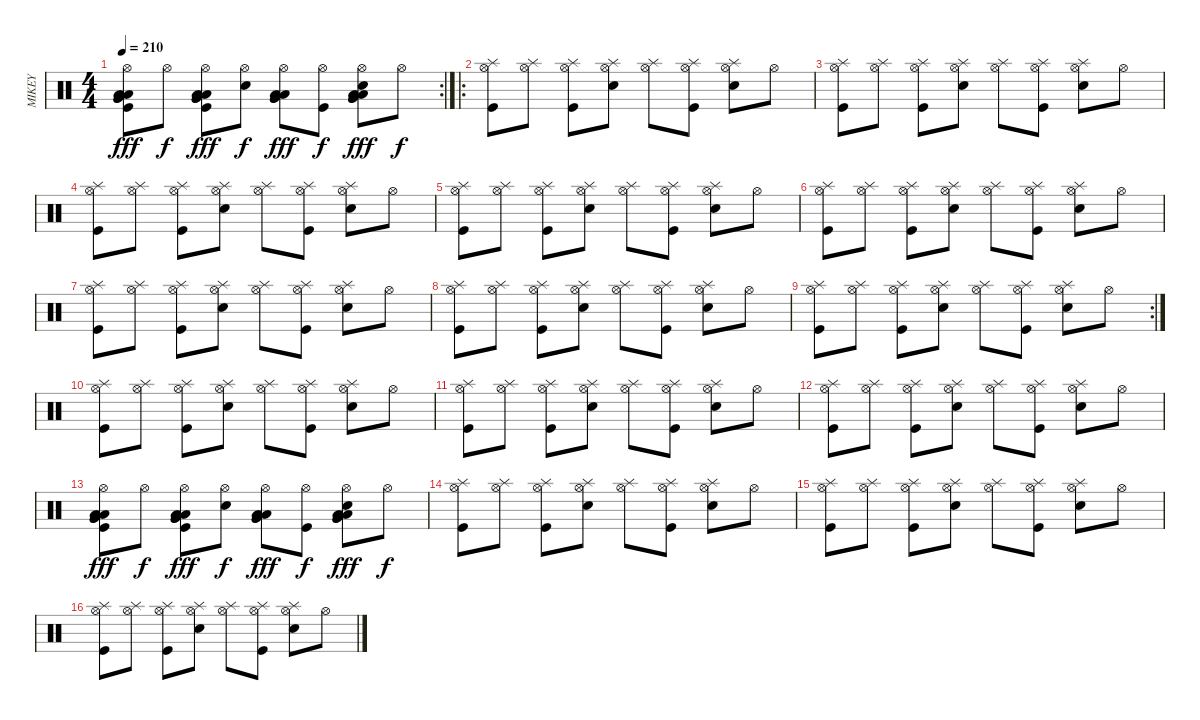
\track ("MIKEY" "MIKEY") {instrument percussion}
\staff {score}
\articulation defaults
\rc 2
\ts (4 4)
\tempo 210
\clef neutral
\ks c
("Low Tom (hit)" "Very Low Tom (hit)" "Low Tom (hit)" "Very Low Tom (hit)" "Hi-Hat (open)" "Kick (hit)").8{dy fff} "Hi-Hat (open)".8{dy f} ("Low Tom (hit)" "Very Low Tom (hit)" "Low Tom (hit)" "Very Low Tom (hit)" "Hi-Hat (open)" "Kick (hit)").8{dy fff} ("Hi-Hat (open)" "Snare (hit) 2").8{dy f} ("Low Tom (hit)" "Very Low Tom (hit)" "Low Tom (hit)" "Very Low Tom (hit)" "Hi-Hat (open)").8{dy fff} ("Hi-Hat (open)" "Kick (hit)").8{dy f} ("Low Tom (hit)" "Very Low Tom (hit)" "Low Tom (hit)" "Very Low Tom (hit)" "Hi-Hat (open)" "Snare (hit) 2").8{dy fff} "Hi-Hat (open)".8{dy f} |
\ro
("Splash (hit)" "Hi-Hat (open)" "Kick (hit)").8 ("Splash (hit)" "Hi-Hat (open)").8 ("Splash (hit)" "Hi-Hat (open)" "Kick (hit)").8 ("Splash (hit)" "Hi-Hat (open)" "Snare (hit) 2").8 ("Splash (hit)" "Hi-Hat (open)").8 ("Splash (hit)" "Hi-Hat (open)" "Kick (hit)").8 ("Splash (hit)" "Hi-Hat (open)" "Snare (hit) 2").8 "Hi-Hat (open)".8 |
("Splash (hit)" "Hi-Hat (open)" "Kick (hit)").8 ("Splash (hit)" "Hi-Hat (open)").8 ("Splash (hit)" "Hi-Hat (open)" "Kick (hit)").8 ("Splash (hit)" "Hi-Hat (open)" "Snare (hit) 2").8 ("Splash (hit)" "Hi-Hat (open)").8 ("Splash (hit)" "Hi-Hat (open)" "Kick (hit)").8 ("Splash (hit)" "Hi-Hat (open)" "Snare (hit) 2").8 "Hi-Hat (open)".8 |
("Splash (hit)" "Hi-Hat (open)" "Kick (hit)").8 ("Splash (hit)" "Hi-Hat (open)").8 ("Splash (hit)" "Hi-Hat (open)" "Kick (hit)").8 ("Splash (hit)" "Hi-Hat (open)" "Snare (hit) 2").8 ("Splash (hit)" "Hi-Hat (open)").8 ("Splash (hit)" "Hi-Hat (open)" "Kick (hit)").8 ("Splash (hit)" "Hi-Hat (open)" "Snare (hit) 2").8 "Hi-Hat (open)".8 |
("Splash (hit)" "Hi-Hat (open)" "Kick (hit)").8 ("Splash (hit)" "Hi-Hat (open)").8 ("Splash (hit)" "Hi-Hat (open)" "Kick (hit)").8 ("Splash (hit)" "Hi-Hat (open)" "Snare (hit) 2").8 ("Splash (hit)" "Hi-Hat (open)").8 ("Splash (hit)" "Hi-Hat (open)" "Kick (hit)").8 ("Splash (hit)" "Hi-Hat (open)" "Snare (hit) 2").8 "Hi-Hat (open)".8 |
("Splash (hit)" "Hi-Hat (open)" "Kick (hit)").8 ("Splash (hit)" "Hi-Hat (open)").8 ("Splash (hit)" "Hi-Hat (open)" "Kick (hit)").8 ("Splash (hit)" "Hi-Hat (open)" "Snare (hit) 2").8 ("Splash (hit)" "Hi-Hat (open)").8 ("Splash (hit)" "Hi-Hat (open)" "Kick (hit)").8 ("Splash (hit)" "Hi-Hat (open)" "Snare (hit) 2").8 "Hi-Hat (open)".8 |
("Splash (hit)" "Hi-Hat (open)" "Kick (hit)").8 ("Splash (hit)" "Hi-Hat (open)").8 ("Splash (hit)" "Hi-Hat (open)" "Kick (hit)").8 ("Splash (hit)" "Hi-Hat (open)" "Snare (hit) 2").8 ("Splash (hit)" "Hi-Hat (open)").8 ("Splash (hit)" "Hi-Hat (open)" "Kick (hit)").8 ("Splash (hit)" "Hi-Hat (open)" "Snare (hit) 2").8 "Hi-Hat (open)".8 |
("Splash (hit)" "Hi-Hat (open)" "Kick (hit)").8 ("Splash (hit)" "Hi-Hat (open)").8 ("Splash (hit)" "Hi-Hat (open)" "Kick (hit)").8 ("Splash (hit)" "Hi-Hat (open)" "Snare (hit) 2").8 ("Splash (hit)" "Hi-Hat (open)").8 ("Splash (hit)" "Hi-Hat (open)" "Kick (hit)").8 ("Splash (hit)" "Hi-Hat (open)" "Snare (hit) 2").8 "Hi-Hat (open)".8 |
\rc 2
("Splash (hit)" "Hi-Hat (open)" "Kick (hit)").8 ("Splash (hit)" "Hi-Hat (open)").8 ("Splash (hit)" "Hi-Hat (open)" "Kick (hit)").8 ("Splash (hit)" "Hi-Hat (open)" "Snare (hit) 2").8 ("Splash (hit)" "Hi-Hat (open)").8 ("Splash (hit)" "Hi-Hat (open)" "Kick (hit)").8 ("Splash (hit)" "Hi-Hat (open)" "Snare (hit) 2").8 "Hi-Hat (open)".8 |
("Splash (hit)" "Hi-Hat (open)" "Kick (hit)").8 ("Splash (hit)" "Hi-Hat (open)").8 ("Splash (hit)" "Hi-Hat (open)" "Kick (hit)").8 ("Splash (hit)" "Hi-Hat (open)" "Snare (hit) 2").8 ("Splash (hit)" "Hi-Hat (open)").8 ("Splash (hit)" "Hi-Hat (open)" "Kick (hit)").8 ("Splash (hit)" "Hi-Hat (open)" "Snare (hit) 2").8 "Hi-Hat (open)".8 |
("Splash (hit)" "Hi-Hat (open)" "Kick (hit)").8 ("Splash (hit)" "Hi-Hat (open)").8 ("Splash (hit)" "Hi-Hat (open)" "Kick (hit)").8 ("Splash (hit)" "Hi-Hat (open)" "Snare (hit) 2").8 ("Splash (hit)" "Hi-Hat (open)").8 ("Splash (hit)" "Hi-Hat (open)" "Kick (hit)").8 ("Splash (hit)" "Hi-Hat (open)" "Snare (hit) 2").8 "Hi-Hat (open)".8 |
("Splash (hit)" "Hi-Hat (open)" "Kick (hit)").8 ("Splash (hit)" "Hi-Hat (open)").8 ("Splash (hit)" "Hi-Hat (open)" "Kick (hit)").8 ("Splash (hit)" "Hi-Hat (open)" "Snare (hit) 2").8 ("Splash (hit)" "Hi-Hat (open)").8 ("Splash (hit)" "Hi-Hat (open)" "Kick (hit)").8 ("Splash (hit)" "Hi-Hat (open)" "Snare (hit) 2").8 "Hi-Hat (open)".8 |
("Low Tom (hit)" "Very Low Tom (hit)" "Low Tom (hit)" "Very Low Tom (hit)" "Hi-Hat (open)" "Kick (hit)").8{dy fff} "Hi-Hat (open)".8{dy f} ("Low Tom (hit)" "Very Low Tom (hit)" "Low Tom (hit)" "Very Low Tom (hit)" "Hi-Hat (open)" "Kick (hit)").8{dy fff} ("Hi-Hat (open)" "Snare (hit) 2").8{dy f} ("Low Tom (hit)" "Very Low Tom (hit)" "Low Tom (hit)" "Very Low Tom (hit)" "Hi-Hat (open)").8{dy fff} ("Hi-Hat (open)" "Kick (hit)").8{dy f} ("Low Tom (hit)" "Very Low Tom (hit)" "Low Tom (hit)" "Very Low Tom (hit)" "Hi-Hat (open)" "Snare (hit) 2").8{dy fff} "Hi-Hat (open)".8{dy f} |
("Splash (hit)" "Hi-Hat (open)" "Kick (hit)").8 ("Splash (hit)" "Hi-Hat (open)").8 ("Splash (hit)" "Hi-Hat (open)" "Kick (hit)").8 ("Splash (hit)" "Hi-Hat (open)" "Snare (hit) 2").8 ("Splash (hit)" "Hi-Hat (open)").8 ("Splash (hit)" "Hi-Hat (open)" "Kick (hit)").8 ("Splash (hit)" "Hi-Hat (open)" "Snare (hit) 2").8 "Hi-Hat (open)".8 |
("Splash (hit)" "Hi-Hat (open)" "Kick (hit)").8 ("Splash (hit)" "Hi-Hat (open)").8 ("Splash (hit)" "Hi-Hat (open)" "Kick (hit)").8 ("Splash (hit)" "Hi-Hat (open)" "Snare (hit) 2").8 ("Splash (hit)" "Hi-Hat (open)").8 ("Splash (hit)" "Hi-Hat (open)" "Kick (hit)").8 ("Splash (hit)" "Hi-Hat (open)" "Snare (hit) 2").8 "Hi-Hat (open)".8 |
("Splash (hit)" "Hi-Hat (open)" "Kick (hit)").8 ("Splash (hit)" "Hi-Hat (open)").8 ("Splash (hit)" "Hi-Hat (open)" "Kick (hit)").8 ("Splash (hit)" "Hi-Hat (open)" "Snare (hit) 2").8 ("Splash (hit)" "Hi-Hat (open)").8 ("Splash (hit)" "Hi-Hat (open)" "Kick (hit)").8 ("Splash (hit)" "Hi-Hat (open)" "Snare (hit) 2").8 "Hi-Hat (open)".8
